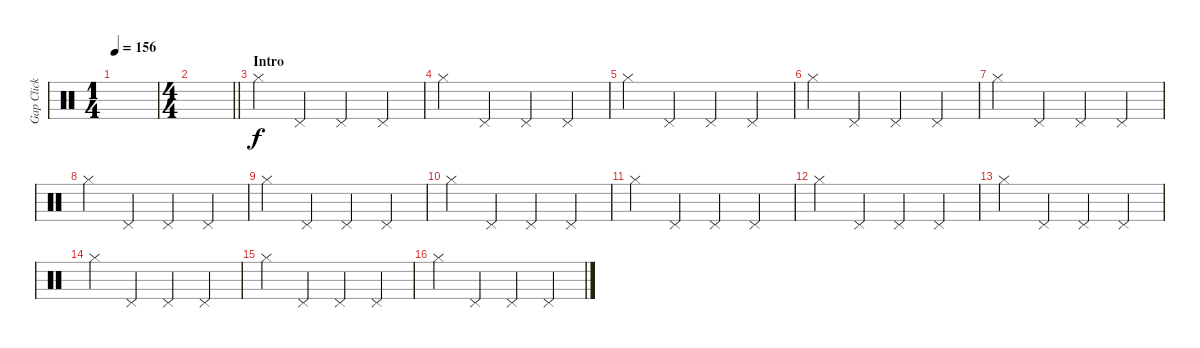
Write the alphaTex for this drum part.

\track ("Gap Click" "Gap Click") {instrument percussion}
\staff {score}
\articulation defaults
\ts (1 4)
\tempo 156
\clef neutral
\ks c
|
\ts (4 4)
\barLineRight lightlight
|
\section ("" "Intro")
"Hi-Hat (closed)".4 "Pedal Hi-Hat (hit)".4 "Pedal Hi-Hat (hit)".4 "Pedal Hi-Hat (hit)".4 |
"Hi-Hat (closed)".4 "Pedal Hi-Hat (hit)".4 "Pedal Hi-Hat (hit)".4 "Pedal Hi-Hat (hit)".4 |
"Hi-Hat (closed)".4 "Pedal Hi-Hat (hit)".4 "Pedal Hi-Hat (hit)".4 "Pedal Hi-Hat (hit)".4 |
"Hi-Hat (closed)".4 "Pedal Hi-Hat (hit)".4 "Pedal Hi-Hat (hit)".4 "Pedal Hi-Hat (hit)".4 |
"Hi-Hat (closed)".4 "Pedal Hi-Hat (hit)".4 "Pedal Hi-Hat (hit)".4 "Pedal Hi-Hat (hit)".4 |
"Hi-Hat (closed)".4 "Pedal Hi-Hat (hit)".4 "Pedal Hi-Hat (hit)".4 "Pedal Hi-Hat (hit)".4 |
"Hi-Hat (closed)".4 "Pedal Hi-Hat (hit)".4 "Pedal Hi-Hat (hit)".4 "Pedal Hi-Hat (hit)".4 |
"Hi-Hat (closed)".4 "Pedal Hi-Hat (hit)".4 "Pedal Hi-Hat (hit)".4 "Pedal Hi-Hat (hit)".4 |
"Hi-Hat (closed)".4 "Pedal Hi-Hat (hit)".4 "Pedal Hi-Hat (hit)".4 "Pedal Hi-Hat (hit)".4 |
"Hi-Hat (closed)".4 "Pedal Hi-Hat (hit)".4 "Pedal Hi-Hat (hit)".4 "Pedal Hi-Hat (hit)".4 |
"Hi-Hat (closed)".4 "Pedal Hi-Hat (hit)".4 "Pedal Hi-Hat (hit)".4 "Pedal Hi-Hat (hit)".4 |
"Hi-Hat (closed)".4 "Pedal Hi-Hat (hit)".4 "Pedal Hi-Hat (hit)".4 "Pedal Hi-Hat (hit)".4 |
"Hi-Hat (closed)".4 "Pedal Hi-Hat (hit)".4 "Pedal Hi-Hat (hit)".4 "Pedal Hi-Hat (hit)".4 |
"Hi-Hat (closed)".4 "Pedal Hi-Hat (hit)".4 "Pedal Hi-Hat (hit)".4 "Pedal Hi-Hat (hit)".4
